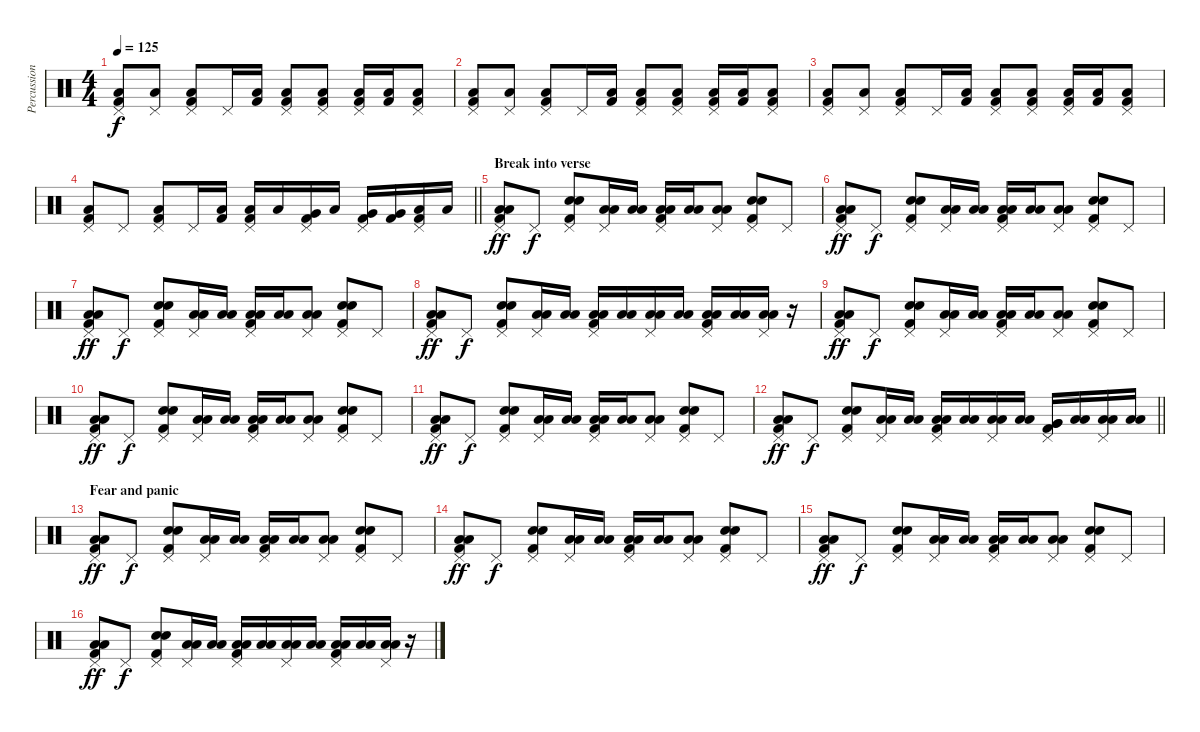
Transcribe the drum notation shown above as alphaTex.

\track ("Percussion" "Percussion") {instrument percussion}
\staff {score}
\articulation defaults
\ts (4 4)
\tempo 125
\clef neutral
\ks c
("Pedal Hi-Hat (hit)" "Low Floor Tom (hit)" "Kick (hit) 2").8{dy f} ("Pedal Hi-Hat (hit)" "Low Tom (hit)").8 ("Pedal Hi-Hat (hit)" "Low Floor Tom (hit)" "Kick (hit) 2").8 "Pedal Hi-Hat (hit)".16 ("Low Floor Tom (hit)" "Kick (hit) 2").16 ("Pedal Hi-Hat (hit)" "Low Tom (hit)" "Kick (hit) 2").8 ("Pedal Hi-Hat (hit)" "Low Floor Tom (hit)" "Kick (hit) 2").8 ("Pedal Hi-Hat (hit)" "Low Floor Tom (hit)" "Kick (hit) 2").16 ("Low Tom (hit)" "Kick (hit) 2").16 ("Pedal Hi-Hat (hit)" "Low Floor Tom (hit)" "Kick (hit) 2").8 |
("Pedal Hi-Hat (hit)" "Low Floor Tom (hit)" "Kick (hit) 2").8 ("Pedal Hi-Hat (hit)" "Low Tom (hit)").8 ("Pedal Hi-Hat (hit)" "Low Floor Tom (hit)" "Kick (hit) 2").8 "Pedal Hi-Hat (hit)".16 ("Low Floor Tom (hit)" "Kick (hit) 2").16 ("Pedal Hi-Hat (hit)" "Low Tom (hit)" "Kick (hit) 2").8 ("Pedal Hi-Hat (hit)" "Low Floor Tom (hit)" "Kick (hit) 2").8 ("Pedal Hi-Hat (hit)" "Low Floor Tom (hit)" "Kick (hit) 2").16 ("Low Tom (hit)" "Kick (hit) 2").16 ("Pedal Hi-Hat (hit)" "Low Floor Tom (hit)" "Kick (hit) 2").8 |
("Pedal Hi-Hat (hit)" "Low Floor Tom (hit)" "Kick (hit) 2").8 ("Pedal Hi-Hat (hit)" "Low Tom (hit)").8 ("Pedal Hi-Hat (hit)" "Low Floor Tom (hit)" "Kick (hit) 2").8 "Pedal Hi-Hat (hit)".16 ("Low Floor Tom (hit)" "Kick (hit) 2").16 ("Pedal Hi-Hat (hit)" "Low Tom (hit)" "Kick (hit) 2").8 ("Pedal Hi-Hat (hit)" "Low Floor Tom (hit)" "Kick (hit) 2").8 ("Pedal Hi-Hat (hit)" "Low Floor Tom (hit)" "Kick (hit) 2").16 ("Low Tom (hit)" "Kick (hit) 2").16 ("Pedal Hi-Hat (hit)" "Low Floor Tom (hit)" "Kick (hit) 2").8 |
\barLineRight lightlight
("Pedal Hi-Hat (hit)" "Low Floor Tom (hit)" "Kick (hit) 2").8 "Pedal Hi-Hat (hit)".8 ("Pedal Hi-Hat (hit)" "Low Tom (hit)" "Kick (hit) 2").8 "Pedal Hi-Hat (hit)".16 ("Low Tom (hit)" "Kick (hit) 2").16 ("Pedal Hi-Hat (hit)" "Low Floor Tom (hit)" "Kick (hit) 2").16 "Low Tom (hit)".16 ("Pedal Hi-Hat (hit)" "Very Low Tom (hit)" "Kick (hit) 2").16 "Low Tom (hit)".16 ("Pedal Hi-Hat (hit)" "Very Low Tom (hit)" "Kick (hit) 2").16 ("Very Low Tom (hit)" "Kick (hit) 2").16 ("Pedal Hi-Hat (hit)" "Low Floor Tom (hit)" "Kick (hit) 2").16 "Low Floor Tom (hit)".16 |
\section ("" "Break into verse")
("Pedal Hi-Hat (hit)" "Low Floor Tom (hit)" "Low Floor Tom (hit)" "Kick (hit) 2").8{dy ff} "Pedal Hi-Hat (hit)".8{dy f} ("Pedal Hi-Hat (hit)" "Electric Snare (hit)" "Electric Snare (hit)" "Kick (hit) 2").8 ("Pedal Hi-Hat (hit)" "Low Floor Tom (hit)" "Low Floor Tom (hit)").16 ("Low Tom (hit)" "Low Tom (hit)").16 ("Pedal Hi-Hat (hit)" "Low Floor Tom (hit)" "Low Floor Tom (hit)" "Kick (hit) 2").16 ("Low Floor Tom (hit)" "Low Floor Tom (hit)").16 ("Pedal Hi-Hat (hit)" "Low Floor Tom (hit)" "Low Floor Tom (hit)").8 ("Pedal Hi-Hat (hit)" "Electric Snare (hit)" "Electric Snare (hit)" "Kick (hit) 2").8 "Pedal Hi-Hat (hit)".8 |
("Pedal Hi-Hat (hit)" "Low Floor Tom (hit)" "Low Floor Tom (hit)" "Kick (hit) 2").8{dy ff} "Pedal Hi-Hat (hit)".8{dy f} ("Pedal Hi-Hat (hit)" "Electric Snare (hit)" "Electric Snare (hit)" "Kick (hit) 2").8 ("Pedal Hi-Hat (hit)" "Low Floor Tom (hit)" "Low Floor Tom (hit)").16 ("Low Tom (hit)" "Low Tom (hit)").16 ("Pedal Hi-Hat (hit)" "Low Floor Tom (hit)" "Low Floor Tom (hit)" "Kick (hit) 2").16 ("Low Floor Tom (hit)" "Low Floor Tom (hit)").16 ("Pedal Hi-Hat (hit)" "Low Floor Tom (hit)" "Low Floor Tom (hit)").8 ("Pedal Hi-Hat (hit)" "Electric Snare (hit)" "Electric Snare (hit)" "Kick (hit) 2").8 "Pedal Hi-Hat (hit)".8 |
("Pedal Hi-Hat (hit)" "Low Floor Tom (hit)" "Low Floor Tom (hit)" "Kick (hit) 2").8{dy ff} "Pedal Hi-Hat (hit)".8{dy f} ("Pedal Hi-Hat (hit)" "Electric Snare (hit)" "Electric Snare (hit)" "Kick (hit) 2").8 ("Pedal Hi-Hat (hit)" "Low Floor Tom (hit)" "Low Floor Tom (hit)").16 ("Low Tom (hit)" "Low Tom (hit)").16 ("Pedal Hi-Hat (hit)" "Low Floor Tom (hit)" "Low Floor Tom (hit)" "Kick (hit) 2").16 ("Low Floor Tom (hit)" "Low Floor Tom (hit)").16 ("Pedal Hi-Hat (hit)" "Low Floor Tom (hit)" "Low Floor Tom (hit)").8 ("Pedal Hi-Hat (hit)" "Electric Snare (hit)" "Electric Snare (hit)" "Kick (hit) 2").8 "Pedal Hi-Hat (hit)".8 |
("Pedal Hi-Hat (hit)" "Low Floor Tom (hit)" "Low Floor Tom (hit)" "Kick (hit) 2").8{dy ff} "Pedal Hi-Hat (hit)".8{dy f} ("Pedal Hi-Hat (hit)" "Electric Snare (hit)" "Electric Snare (hit)" "Kick (hit) 2").8 ("Pedal Hi-Hat (hit)" "Low Floor Tom (hit)" "Low Floor Tom (hit)").16 ("Low Tom (hit)" "Low Tom (hit)").16 ("Pedal Hi-Hat (hit)" "Low Floor Tom (hit)" "Low Floor Tom (hit)" "Kick (hit) 2").16 ("Low Floor Tom (hit)" "Low Floor Tom (hit)").16 ("Pedal Hi-Hat (hit)" "Low Floor Tom (hit)" "Low Floor Tom (hit)").16 ("Low Tom (hit)" "Low Tom (hit)").16 ("Pedal Hi-Hat (hit)" "Low Floor Tom (hit)" "Low Floor Tom (hit)" "Kick (hit) 2").16 ("Low Floor Tom (hit)" "Low Floor Tom (hit)").16 ("Pedal Hi-Hat (hit)" "Low Floor Tom (hit)" "Low Floor Tom (hit)").16 r.16 |
("Pedal Hi-Hat (hit)" "Low Floor Tom (hit)" "Low Floor Tom (hit)" "Kick (hit) 2").8{dy ff} "Pedal Hi-Hat (hit)".8{dy f} ("Pedal Hi-Hat (hit)" "Electric Snare (hit)" "Electric Snare (hit)" "Kick (hit) 2").8 ("Pedal Hi-Hat (hit)" "Low Floor Tom (hit)" "Low Floor Tom (hit)").16 ("Low Tom (hit)" "Low Tom (hit)").16 ("Pedal Hi-Hat (hit)" "Low Floor Tom (hit)" "Low Floor Tom (hit)" "Kick (hit) 2").16 ("Low Floor Tom (hit)" "Low Floor Tom (hit)").16 ("Pedal Hi-Hat (hit)" "Low Floor Tom (hit)" "Low Floor Tom (hit)").8 ("Pedal Hi-Hat (hit)" "Electric Snare (hit)" "Electric Snare (hit)" "Kick (hit) 2").8 "Pedal Hi-Hat (hit)".8 |
("Pedal Hi-Hat (hit)" "Low Floor Tom (hit)" "Low Floor Tom (hit)" "Kick (hit) 2").8{dy ff} "Pedal Hi-Hat (hit)".8{dy f} ("Pedal Hi-Hat (hit)" "Electric Snare (hit)" "Electric Snare (hit)" "Kick (hit) 2").8 ("Pedal Hi-Hat (hit)" "Low Floor Tom (hit)" "Low Floor Tom (hit)").16 ("Low Tom (hit)" "Low Tom (hit)").16 ("Pedal Hi-Hat (hit)" "Low Floor Tom (hit)" "Low Floor Tom (hit)" "Kick (hit) 2").16 ("Low Floor Tom (hit)" "Low Floor Tom (hit)").16 ("Pedal Hi-Hat (hit)" "Low Floor Tom (hit)" "Low Floor Tom (hit)").8 ("Pedal Hi-Hat (hit)" "Electric Snare (hit)" "Electric Snare (hit)" "Kick (hit) 2").8 "Pedal Hi-Hat (hit)".8 |
("Pedal Hi-Hat (hit)" "Low Floor Tom (hit)" "Low Floor Tom (hit)" "Kick (hit) 2").8{dy ff} "Pedal Hi-Hat (hit)".8{dy f} ("Pedal Hi-Hat (hit)" "Electric Snare (hit)" "Electric Snare (hit)" "Kick (hit) 2").8 ("Pedal Hi-Hat (hit)" "Low Floor Tom (hit)" "Low Floor Tom (hit)").16 ("Low Tom (hit)" "Low Tom (hit)").16 ("Pedal Hi-Hat (hit)" "Low Floor Tom (hit)" "Low Floor Tom (hit)" "Kick (hit) 2").16 ("Low Floor Tom (hit)" "Low Floor Tom (hit)").16 ("Pedal Hi-Hat (hit)" "Low Floor Tom (hit)" "Low Floor Tom (hit)").8 ("Pedal Hi-Hat (hit)" "Electric Snare (hit)" "Electric Snare (hit)" "Kick (hit) 2").8 "Pedal Hi-Hat (hit)".8 |
\barLineRight lightlight
("Pedal Hi-Hat (hit)" "Low Floor Tom (hit)" "Low Floor Tom (hit)" "Kick (hit) 2").8{dy ff} "Pedal Hi-Hat (hit)".8{dy f} ("Pedal Hi-Hat (hit)" "Electric Snare (hit)" "Electric Snare (hit)" "Kick (hit) 2").8 ("Pedal Hi-Hat (hit)" "Low Floor Tom (hit)" "Low Floor Tom (hit)").16 ("Low Tom (hit)" "Low Tom (hit)").16 ("Pedal Hi-Hat (hit)" "Low Floor Tom (hit)" "Low Floor Tom (hit)" "Kick (hit) 2").16 ("Low Floor Tom (hit)" "Low Floor Tom (hit)").16 ("Pedal Hi-Hat (hit)" "Low Floor Tom (hit)" "Low Floor Tom (hit)").16 ("Low Tom (hit)" "Low Tom (hit)").16 ("Pedal Hi-Hat (hit)" "Very Low Tom (hit)" "Very Low Tom (hit)" "Kick (hit) 2").16 ("Low Floor Tom (hit)" "Low Floor Tom (hit)").16 ("Pedal Hi-Hat (hit)" "Low Floor Tom (hit)" "Low Floor Tom (hit)").16 ("Low Floor Tom (hit)" "Low Floor Tom (hit)").16 |
\section ("" "Fear and panic")
("Pedal Hi-Hat (hit)" "Low Floor Tom (hit)" "Low Floor Tom (hit)" "Kick (hit) 2").8{dy ff} "Pedal Hi-Hat (hit)".8{dy f} ("Pedal Hi-Hat (hit)" "Electric Snare (hit)" "Electric Snare (hit)" "Kick (hit) 2").8 ("Pedal Hi-Hat (hit)" "Low Floor Tom (hit)" "Low Floor Tom (hit)").16 ("Low Tom (hit)" "Low Tom (hit)").16 ("Pedal Hi-Hat (hit)" "Low Floor Tom (hit)" "Low Floor Tom (hit)" "Kick (hit) 2").16 ("Low Floor Tom (hit)" "Low Floor Tom (hit)").16 ("Pedal Hi-Hat (hit)" "Low Floor Tom (hit)" "Low Floor Tom (hit)").8 ("Pedal Hi-Hat (hit)" "Electric Snare (hit)" "Electric Snare (hit)" "Kick (hit) 2").8 "Pedal Hi-Hat (hit)".8 |
("Pedal Hi-Hat (hit)" "Low Floor Tom (hit)" "Low Floor Tom (hit)" "Kick (hit) 2").8{dy ff} "Pedal Hi-Hat (hit)".8{dy f} ("Pedal Hi-Hat (hit)" "Electric Snare (hit)" "Electric Snare (hit)" "Kick (hit) 2").8 ("Pedal Hi-Hat (hit)" "Low Floor Tom (hit)" "Low Floor Tom (hit)").16 ("Low Tom (hit)" "Low Tom (hit)").16 ("Pedal Hi-Hat (hit)" "Low Floor Tom (hit)" "Low Floor Tom (hit)" "Kick (hit) 2").16 ("Low Floor Tom (hit)" "Low Floor Tom (hit)").16 ("Pedal Hi-Hat (hit)" "Low Floor Tom (hit)" "Low Floor Tom (hit)").8 ("Pedal Hi-Hat (hit)" "Electric Snare (hit)" "Electric Snare (hit)" "Kick (hit) 2").8 "Pedal Hi-Hat (hit)".8 |
("Pedal Hi-Hat (hit)" "Low Floor Tom (hit)" "Low Floor Tom (hit)" "Kick (hit) 2").8{dy ff} "Pedal Hi-Hat (hit)".8{dy f} ("Pedal Hi-Hat (hit)" "Electric Snare (hit)" "Electric Snare (hit)" "Kick (hit) 2").8 ("Pedal Hi-Hat (hit)" "Low Floor Tom (hit)" "Low Floor Tom (hit)").16 ("Low Tom (hit)" "Low Tom (hit)").16 ("Pedal Hi-Hat (hit)" "Low Floor Tom (hit)" "Low Floor Tom (hit)" "Kick (hit) 2").16 ("Low Floor Tom (hit)" "Low Floor Tom (hit)").16 ("Pedal Hi-Hat (hit)" "Low Floor Tom (hit)" "Low Floor Tom (hit)").8 ("Pedal Hi-Hat (hit)" "Electric Snare (hit)" "Electric Snare (hit)" "Kick (hit) 2").8 "Pedal Hi-Hat (hit)".8 |
("Pedal Hi-Hat (hit)" "Low Floor Tom (hit)" "Low Floor Tom (hit)" "Kick (hit) 2").8{dy ff} "Pedal Hi-Hat (hit)".8{dy f} ("Pedal Hi-Hat (hit)" "Electric Snare (hit)" "Electric Snare (hit)" "Kick (hit) 2").8 ("Pedal Hi-Hat (hit)" "Low Floor Tom (hit)" "Low Floor Tom (hit)").16 ("Low Tom (hit)" "Low Tom (hit)").16 ("Pedal Hi-Hat (hit)" "Low Floor Tom (hit)" "Low Floor Tom (hit)" "Kick (hit) 2").16 ("Low Floor Tom (hit)" "Low Floor Tom (hit)").16 ("Pedal Hi-Hat (hit)" "Low Floor Tom (hit)" "Low Floor Tom (hit)").16 ("Low Tom (hit)" "Low Tom (hit)").16 ("Pedal Hi-Hat (hit)" "Low Floor Tom (hit)" "Low Floor Tom (hit)" "Kick (hit) 2").16 ("Low Floor Tom (hit)" "Low Floor Tom (hit)").16 ("Pedal Hi-Hat (hit)" "Low Floor Tom (hit)" "Low Floor Tom (hit)").16 r.16
